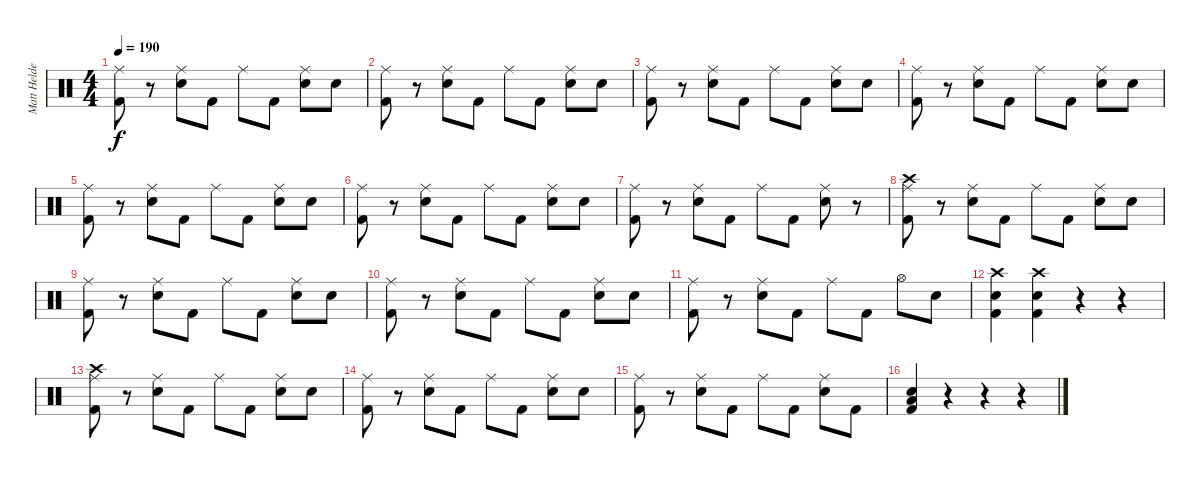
\track ("Matt Helders (Percussion)" "Matt Helde") {instrument percussion}
\staff {score}
\articulation defaults
\ts (4 4)
\tempo 190
\clef neutral
\ks c
("Ride (middle)" "Kick (hit) 2").8{dy f} r.8 ("Ride (middle)" "Snare (hit) 2").8 "Kick (hit) 2".8 "Ride (middle)".8 "Kick (hit) 2".8 ("Ride (middle)" "Snare (hit) 2").8 "Snare (hit) 2".8 |
("Ride (middle)" "Kick (hit) 2").8 r.8 ("Ride (middle)" "Snare (hit) 2").8 "Kick (hit) 2".8 "Ride (middle)".8 "Kick (hit) 2".8 ("Ride (middle)" "Snare (hit) 2").8 "Snare (hit) 2".8 |
("Ride (middle)" "Kick (hit) 2").8 r.8 ("Ride (middle)" "Snare (hit) 2").8 "Kick (hit) 2".8 "Ride (middle)".8 "Kick (hit) 2".8 ("Ride (middle)" "Snare (hit) 2").8 "Snare (hit) 2".8 |
("Ride (middle)" "Kick (hit) 2").8 r.8 ("Ride (middle)" "Snare (hit) 2").8 "Kick (hit) 2".8 "Ride (middle)".8 "Kick (hit) 2".8 ("Ride (middle)" "Snare (hit) 2").8 "Snare (hit) 2".8 |
("Ride (middle)" "Kick (hit) 2").8 r.8 ("Ride (middle)" "Snare (hit) 2").8 "Kick (hit) 2".8 "Ride (middle)".8 "Kick (hit) 2".8 ("Ride (middle)" "Snare (hit) 2").8 "Snare (hit) 2".8 |
("Ride (middle)" "Kick (hit) 2").8 r.8 ("Ride (middle)" "Snare (hit) 2").8 "Kick (hit) 2".8 "Ride (middle)".8 "Kick (hit) 2".8 ("Ride (middle)" "Snare (hit) 2").8 "Snare (hit) 2".8 |
("Ride (middle)" "Kick (hit) 2").8 r.8 ("Ride (middle)" "Snare (hit) 2").8 "Kick (hit) 2".8 "Ride (middle)".8 "Kick (hit) 2".8 ("Ride (middle)" "Snare (hit) 2").8 r.8 |
("Crash high (hit)" "Ride (middle)" "Kick (hit) 2").8 r.8 ("Ride (middle)" "Snare (hit) 2").8 "Kick (hit) 2".8 "Ride (middle)".8 "Kick (hit) 2".8 ("Ride (middle)" "Snare (hit) 2").8 "Snare (hit) 2".8 |
("Ride (middle)" "Kick (hit) 2").8 r.8 ("Ride (middle)" "Snare (hit) 2").8 "Kick (hit) 2".8 "Ride (middle)".8 "Kick (hit) 2".8 ("Ride (middle)" "Snare (hit) 2").8 "Snare (hit) 2".8 |
("Ride (middle)" "Kick (hit) 2").8 r.8 ("Ride (middle)" "Snare (hit) 2").8 "Kick (hit) 2".8 "Ride (middle)".8 "Kick (hit) 2".8 ("Ride (middle)" "Snare (hit) 2").8 "Snare (hit) 2".8 |
("Ride (middle)" "Kick (hit) 2").8 r.8 ("Ride (middle)" "Snare (hit) 2").8 "Kick (hit) 2".8 "Ride (middle)".8 "Kick (hit) 2".8 "Hi-Hat (open)".8 "Snare (hit) 2".8 |
("Crash high (hit)" "Snare (hit) 2" "Kick (hit) 2").4 ("Crash high (hit)" "Snare (hit) 2" "Kick (hit) 2").4 r.4 r.4 |
("Crash high (hit)" "Ride (middle)" "Kick (hit) 2").8 r.8 ("Ride (middle)" "Snare (hit) 2").8 "Kick (hit) 2".8 "Ride (middle)".8 "Kick (hit) 2".8 ("Ride (middle)" "Snare (hit) 2").8 "Snare (hit) 2".8 |
("Ride (middle)" "Kick (hit) 2").8 r.8 ("Ride (middle)" "Snare (hit) 2").8 "Kick (hit) 2".8 "Ride (middle)".8 "Kick (hit) 2".8 ("Ride (middle)" "Snare (hit) 2").8 "Snare (hit) 2".8 |
("Ride (middle)" "Kick (hit) 2").8 r.8 ("Ride (middle)" "Snare (hit) 2").8 "Kick (hit) 2".8 "Ride (middle)".8 "Kick (hit) 2".8 ("Ride (middle)" "Snare (hit) 2").8 "Kick (hit) 2".8 |
("Snare (hit) 2" "Low Tom (hit)" "Kick (hit) 2").4 r.4 r.4 r.4
